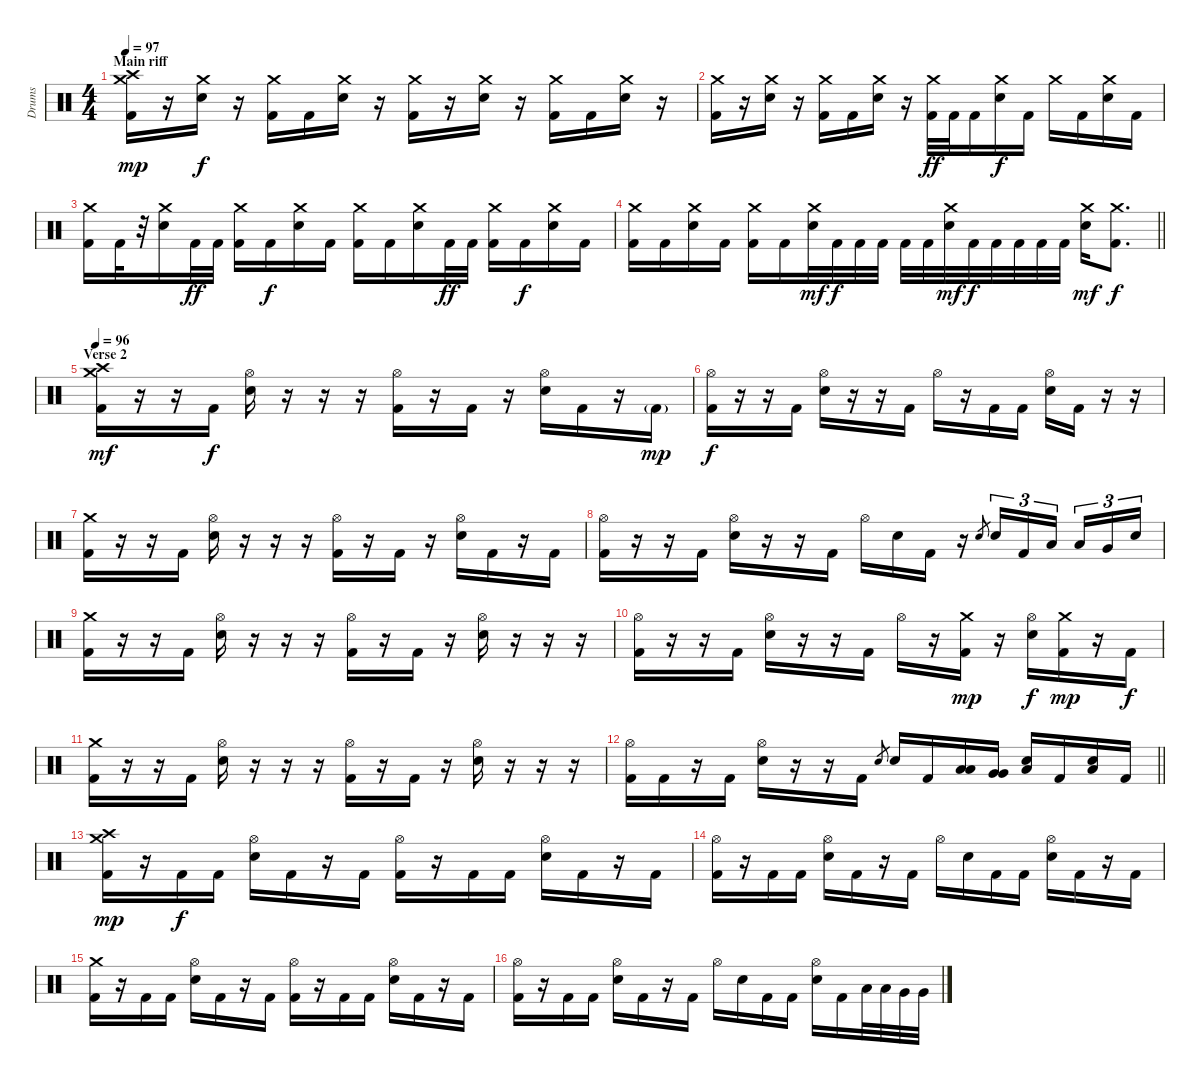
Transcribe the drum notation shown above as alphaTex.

\track ("Drums" "Drums") {instrument percussion}
\staff {score}
\articulation defaults
\ts (4 4)
\section ("" "Main riff")
\tempo 97
\clef neutral
\ks c
("Crash high (hit)" "Crash medium (hit)" "Kick (hit) 2").16{dy mp} r.16 ("Crash medium (hit)" "Electric Snare (hit)").16{dy f} r.16 ("Crash medium (hit)" "Kick (hit) 2").16 "Kick (hit) 2".16 ("Crash medium (hit)" "Electric Snare (hit)").16 r.16 ("Crash medium (hit)" "Kick (hit) 2").16 r.16 ("Crash medium (hit)" "Electric Snare (hit)").16 r.16 ("Crash medium (hit)" "Kick (hit) 2").16 "Kick (hit) 2".16 ("Crash medium (hit)" "Electric Snare (hit)").16 r.16 |
("Crash medium (hit)" "Kick (hit) 2").16 r.16 ("Crash medium (hit)" "Electric Snare (hit)").16 r.16 ("Crash medium (hit)" "Kick (hit) 2").16 "Kick (hit) 2".16 ("Crash medium (hit)" "Electric Snare (hit)").16 r.16 ("Crash medium (hit)" "Kick (hit) 2").32{dy ff} "Kick (hit) 2".32 "Kick (hit) 2".16 ("Crash medium (hit)" "Electric Snare (hit)").16{dy f} "Kick (hit) 2".16 "Crash medium (hit)".16 "Kick (hit) 2".16 ("Crash medium (hit)" "Electric Snare (hit)").16 "Kick (hit) 2".16 |
("Crash medium (hit)" "Kick (hit) 2").16 "Kick (hit) 2".32 r.32 ("Crash medium (hit)" "Electric Snare (hit)").16 "Kick (hit) 2".32{dy ff} "Kick (hit) 2".32 ("Crash medium (hit)" "Kick (hit) 2").16 "Kick (hit) 2".16{dy f} ("Crash medium (hit)" "Electric Snare (hit)").16 "Kick (hit) 2".16 ("Crash medium (hit)" "Kick (hit) 2").16 "Kick (hit) 2".16 ("Crash medium (hit)" "Electric Snare (hit)").16 "Kick (hit) 2".32{dy ff} "Kick (hit) 2".32 ("Crash medium (hit)" "Kick (hit) 2").16 "Kick (hit) 2".16{dy f} ("Crash medium (hit)" "Electric Snare (hit)").16 "Kick (hit) 2".16 |
\barLineRight lightlight
("Crash medium (hit)" "Kick (hit) 2").16 "Kick (hit) 2".16 ("Crash medium (hit)" "Electric Snare (hit)").16 "Kick (hit) 2".16 ("Crash medium (hit)" "Kick (hit) 2").16 "Kick (hit) 2".16 ("Crash medium (hit)" "Electric Snare (hit)").32{dy mf} "Kick (hit) 2".32{dy f} "Kick (hit) 2".32 "Kick (hit) 2".32 "Kick (hit) 2".32 "Kick (hit) 2".32 ("Crash medium (hit)" "Electric Snare (hit)").32{dy mf} "Kick (hit) 2".32{dy f} "Kick (hit) 2".32 "Kick (hit) 2".32 "Kick (hit) 2".32 "Kick (hit) 2".32 ("Crash medium (hit)" "Electric Snare (hit)").16{dy mf} ("Crash medium (hit)" "Kick (hit) 2").8{d dy f} |
\section ("" "Verse 2")
\tempo 96
("Crash high (hit)" "Crash medium (hit)" "Kick (hit) 2").16{dy mf} r.16 r.16 "Kick (hit) 2".16{dy f} ("Hi-Hat (open)" "Electric Snare (hit)").16 r.16 r.16 r.16 ("Hi-Hat (open)" "Kick (hit) 2").16 r.16 "Kick (hit) 2".16 r.16 ("Hi-Hat (open)" "Electric Snare (hit)").16 "Kick (hit) 2".16 r.16 "Kick (hit) 2"{g}.16{dy mp} |
("Hi-Hat (open)" "Kick (hit) 2").16{dy f} r.16 r.16 "Kick (hit) 2".16 ("Hi-Hat (open)" "Electric Snare (hit)").16 r.16 r.16 "Kick (hit) 2".16 "Hi-Hat (open)".16 r.16 "Kick (hit) 2".16 "Kick (hit) 2".16 ("Hi-Hat (open)" "Electric Snare (hit)").16 "Kick (hit) 2".16 r.16 r.16 |
("Crash medium (hit)" "Kick (hit) 2").16 r.16 r.16 "Kick (hit) 2".16 ("Hi-Hat (open)" "Electric Snare (hit)").16 r.16 r.16 r.16 ("Hi-Hat (open)" "Kick (hit) 2").16 r.16 "Kick (hit) 2".16 r.16 ("Hi-Hat (open)" "Electric Snare (hit)").16 "Kick (hit) 2".16 r.16 "Kick (hit) 2".16 |
("Hi-Hat (open)" "Kick (hit) 2").16 r.16 r.16 "Kick (hit) 2".16 ("Hi-Hat (open)" "Electric Snare (hit)").16 r.16 r.16 "Kick (hit) 2".16 "Hi-Hat (open)".16 "Electric Snare (hit)".16 "Kick (hit) 2".16 r.16 "Electric Snare (hit)".8{gr} "Electric Snare (hit)".16{tu (3 2)} "Kick (hit) 2".16{tu (3 2)} "Low Tom (hit)".16{tu (3 2) beam splitsecondary} "Low Tom (hit)".16{tu (3 2)} "Very Low Tom (hit)".16{tu (3 2)} "Electric Snare (hit)".16{tu (3 2)} |
("Crash medium (hit)" "Kick (hit) 2").16 r.16 r.16 "Kick (hit) 2".16 ("Hi-Hat (open)" "Electric Snare (hit)").16 r.16 r.16 r.16 ("Hi-Hat (open)" "Kick (hit) 2").16 r.16 "Kick (hit) 2".16 r.16 ("Hi-Hat (open)" "Electric Snare (hit)").16 r.16 r.16 r.16 |
("Hi-Hat (open)" "Kick (hit) 2").16 r.16 r.16 "Kick (hit) 2".16 ("Hi-Hat (open)" "Electric Snare (hit)").16 r.16 r.16 "Kick (hit) 2".16 "Hi-Hat (open)".16 r.16 ("Crash medium (hit)" "Kick (hit) 2").16{dy mp} r.16 ("Hi-Hat (open)" "Electric Snare (hit)").16{dy f} ("Crash medium (hit)" "Kick (hit) 2").16{dy mp} r.16 "Kick (hit) 2".16{dy f} |
("Crash medium (hit)" "Kick (hit) 2").16 r.16 r.16 "Kick (hit) 2".16 ("Hi-Hat (open)" "Electric Snare (hit)").16 r.16 r.16 r.16 ("Hi-Hat (open)" "Kick (hit) 2").16 r.16 "Kick (hit) 2".16 r.16 ("Hi-Hat (open)" "Electric Snare (hit)").16 r.16 r.16 r.16 |
\barLineRight lightlight
("Hi-Hat (open)" "Kick (hit) 2").16 "Kick (hit) 2".16 r.16 "Kick (hit) 2".16 ("Hi-Hat (open)" "Electric Snare (hit)").16 r.16 r.16 "Kick (hit) 2".16 "Electric Snare (hit)".8{gr} "Electric Snare (hit)".16 "Kick (hit) 2".16 ("Low Tom (hit)" "Low Tom (hit)").16 ("Very Low Tom (hit)" "Very Low Tom (hit)").16 ("Low Floor Tom (hit)" "Electric Snare (hit)").16 "Kick (hit) 2".16 ("Low Floor Tom (hit)" "Electric Snare (hit)").16 "Kick (hit) 2".16 |
\section ("" "")
("Crash high (hit)" "Crash medium (hit)" "Kick (hit) 2").16{dy mp} r.16 "Kick (hit) 2".16{dy f} "Kick (hit) 2".16 ("Hi-Hat (open)" "Electric Snare (hit)").16 "Kick (hit) 2".16 r.16 "Kick (hit) 2".16 ("Hi-Hat (open)" "Kick (hit) 2").16 r.16 "Kick (hit) 2".16 "Kick (hit) 2".16 ("Hi-Hat (open)" "Electric Snare (hit)").16 "Kick (hit) 2".16 r.16 "Kick (hit) 2".16 |
("Hi-Hat (open)" "Kick (hit) 2").16 r.16 "Kick (hit) 2".16 "Kick (hit) 2".16 ("Hi-Hat (open)" "Electric Snare (hit)").16 "Kick (hit) 2".16 r.16 "Kick (hit) 2".16 "Hi-Hat (open)".16 "Electric Snare (hit)".16 "Kick (hit) 2".16 "Kick (hit) 2".16 ("Hi-Hat (open)" "Electric Snare (hit)").16 "Kick (hit) 2".16 r.16 "Kick (hit) 2".16 |
("Crash medium (hit)" "Kick (hit) 2").16 r.16 "Kick (hit) 2".16 "Kick (hit) 2".16 ("Hi-Hat (open)" "Electric Snare (hit)").16 "Kick (hit) 2".16 r.16 "Kick (hit) 2".16 ("Hi-Hat (open)" "Kick (hit) 2").16 r.16 "Kick (hit) 2".16 "Kick (hit) 2".16 ("Hi-Hat (open)" "Electric Snare (hit)").16 "Kick (hit) 2".16 r.16 "Kick (hit) 2".16 |
("Hi-Hat (open)" "Kick (hit) 2").16 r.16 "Kick (hit) 2".16 "Kick (hit) 2".16 ("Hi-Hat (open)" "Electric Snare (hit)").16 "Kick (hit) 2".16 r.16 "Kick (hit) 2".16 "Hi-Hat (open)".16 "Electric Snare (hit)".16 "Kick (hit) 2".16 "Kick (hit) 2".16 ("Hi-Hat (open)" "Electric Snare (hit)").16 "Kick (hit) 2".16 "Low Tom (hit)".32 "Low Tom (hit)".32 "Very Low Tom (hit)".32 "Very Low Tom (hit)".32
